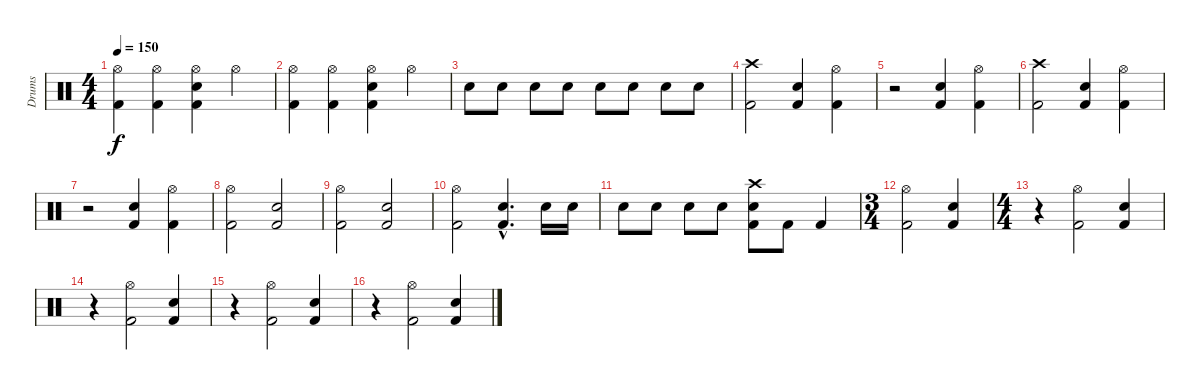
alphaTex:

\track ("Drums" "Drums") {instrument percussion}
\staff {score}
\articulation defaults
\ts (4 4)
\tempo 150
\clef neutral
\ks c
("Hi-Hat (open)" "Kick (hit) 2").4{dy f} ("Hi-Hat (open)" "Kick (hit) 2").4 ("Hi-Hat (open)" "Electric Snare (hit)" "Kick (hit) 2").4 "Hi-Hat (open)".4 |
("Hi-Hat (open)" "Kick (hit) 2").4 ("Hi-Hat (open)" "Kick (hit) 2").4 ("Hi-Hat (open)" "Electric Snare (hit)" "Kick (hit) 2").4 "Hi-Hat (open)".4 |
"Electric Snare (hit)".8 "Electric Snare (hit)".8 "Electric Snare (hit)".8 "Electric Snare (hit)".8 "Snare (hit) 2".8 "Snare (hit) 2".8 "Snare (hit) 2".8 "Snare (hit) 2".8 |
("Crash high (hit)" "Kick (hit) 2").2 ("Electric Snare (hit)" "Kick (hit) 2").4 ("Hi-Hat (open)" "Kick (hit) 2").4 |
r.2 ("Electric Snare (hit)" "Kick (hit) 2").4 ("Hi-Hat (open)" "Kick (hit) 2").4 |
("Crash high (hit)" "Kick (hit) 2").2 ("Electric Snare (hit)" "Kick (hit) 2").4 ("Hi-Hat (open)" "Kick (hit) 2").4 |
r.2 ("Electric Snare (hit)" "Kick (hit) 2").4 ("Hi-Hat (open)" "Kick (hit) 2").4 |
("Hi-Hat (open)" "Kick (hit) 2").2 ("Electric Snare (hit)" "Kick (hit) 2").2 |
("Hi-Hat (open)" "Kick (hit) 2").2 ("Electric Snare (hit)" "Kick (hit) 2").2 |
("Hi-Hat (open)" "Kick (hit) 2").2 ("Electric Snare (hit)"{hac} "Kick (hit) 2"{hac}).4{d} "Electric Snare (hit)".16 "Electric Snare (hit)".16 |
"Electric Snare (hit)".8 "Electric Snare (hit)".8 "Snare (hit) 2".8 "Snare (hit) 2".8 ("Crash high (hit)" "Electric Snare (hit)" "Kick (hit) 2").8 "Kick (hit) 2".8 "Kick (hit) 2".4 |
\ts (3 4)
("Hi-Hat (open)" "Kick (hit) 2").2 ("Electric Snare (hit)" "Kick (hit) 2").4 |
\ts (4 4)
r.4 ("Hi-Hat (open)" "Kick (hit) 2").2 ("Electric Snare (hit)" "Kick (hit) 2").4 |
r.4 ("Hi-Hat (open)" "Kick (hit) 2").2 ("Electric Snare (hit)" "Kick (hit) 2").4 |
r.4 ("Hi-Hat (open)" "Kick (hit) 2").2 ("Electric Snare (hit)" "Kick (hit) 2").4 |
r.4 ("Hi-Hat (open)" "Kick (hit) 2").2 ("Electric Snare (hit)" "Kick (hit) 2").4
